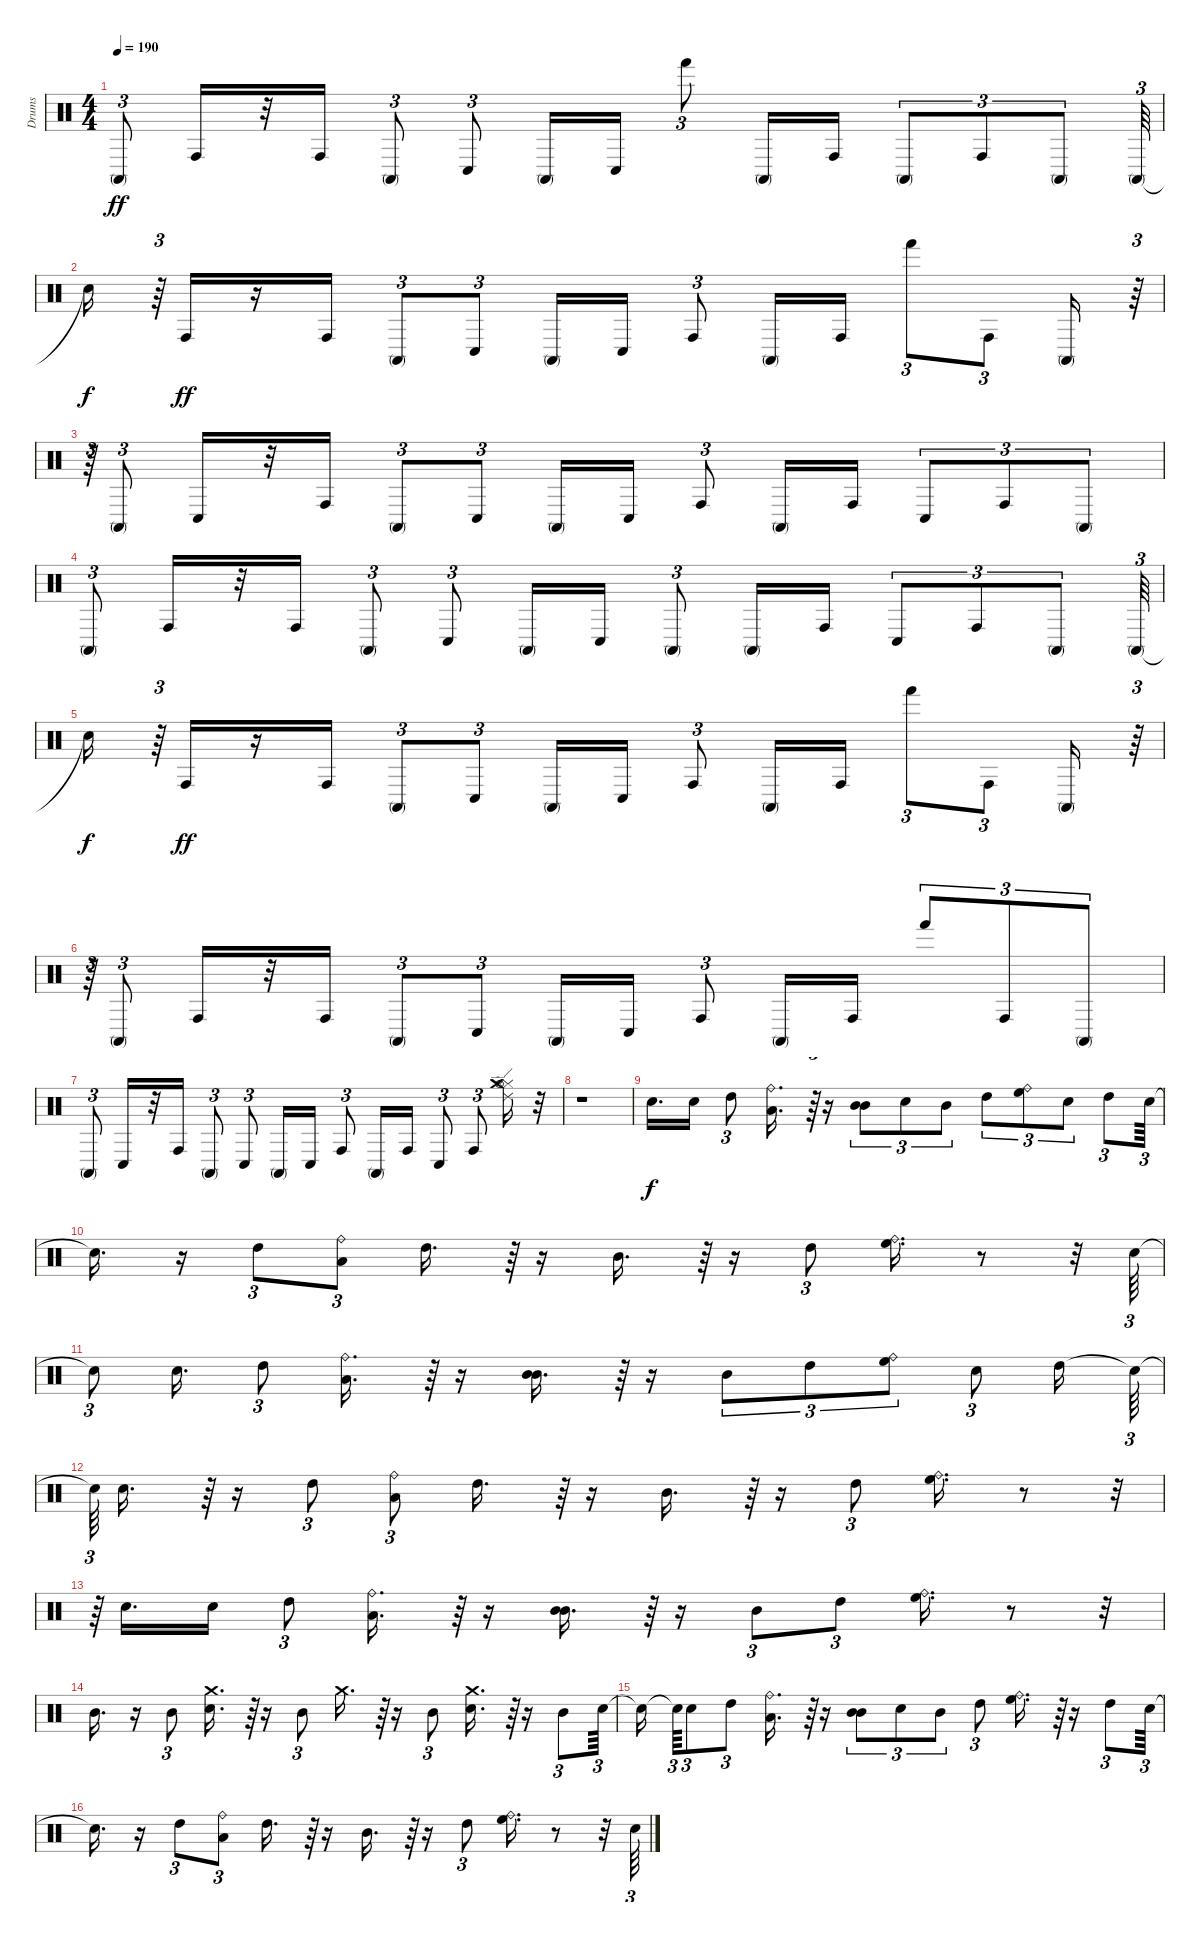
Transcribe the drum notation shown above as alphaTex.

\track ("Drums" "Drums") {instrument percussion}
\staff {score}
\articulation defaults
\ts (4 4)
\tempo 190
\clef neutral
\ks c "Conga high (mute)".8{tu (3 2) dy ff} "Conga high (hit)".16
r.32 "Conga high (hit)".16 "Conga high (mute)".8{tu (3 2)} "Conga low (hit)".8{tu (3 2)} "Conga high (mute)".16 "Conga low (hit)".16 "Hand (hit)".8{tu (3 2)} "Conga high (mute)".16 "Conga high (hit)".16 "Conga high (mute)".8{tu (3 2)} "Conga high (hit)".8{tu (3 2)} "Conga high (mute)".8{tu (3 2)} "Conga high (mute)".64{tu (3 2)} |
"Snare (hit)"{t}.16{dy f} r.64{tu (3 2)} "Conga high (hit)".16{dy ff} r.16 "Conga high (hit)".16 "Conga high (mute)".8{tu (3 2)} "Conga low (hit)".8{tu (3 2)} "Conga high (mute)".16 "Conga low (hit)".16 "Conga high (hit)".8{tu (3 2)} "Conga high (mute)".16 "Conga high (hit)".16 "Hand (hit)".8{tu (3 2)} "Conga high (hit)".8{tu (3 2)} "Conga high (mute)".16 r.64{tu (3 2)} |
r.64{tu (3 2)} "Conga high (mute)".8{tu (3 2)} "Conga low (hit)".16 r.32 "Conga high (hit)".16 "Conga high (mute)".8{tu (3 2)} "Conga low (hit)".8{tu (3 2)} "Conga high (mute)".16 "Conga low (hit)".16 "Conga high (hit)".8{tu (3 2)} "Conga high (mute)".16 "Conga high (hit)".16 "Conga low (hit)".8{tu (3 2)} "Conga high (hit)".8{tu (3 2)} "Conga high (mute)".8{tu (3 2)} |
"Conga high (mute)".8{tu (3 2)} "Conga high (hit)".16 r.32 "Conga high (hit)".16 "Conga high (mute)".8{tu (3 2)} "Conga low (hit)".8{tu (3 2)} "Conga high (mute)".16 "Conga low (hit)".16 "Conga high (mute)".8{tu (3 2)} "Conga high (mute)".16 "Conga high (hit)".16 "Conga low (hit)".8{tu (3 2)} "Conga high (hit)".8{tu (3 2)} "Conga high (mute)".8{tu (3 2)} "Conga high (mute)".64{tu (3 2)} |
"Snare (hit)"{t}.16{dy f} r.64{tu (3 2)} "Conga high (hit)".16{dy ff} r.16 "Conga high (hit)".16 "Conga high (mute)".8{tu (3 2)} "Conga low (hit)".8{tu (3 2)} "Conga high (mute)".16 "Conga low (hit)".16 "Conga high (hit)".8{tu (3 2)} "Conga high (mute)".16 "Conga high (hit)".16 "Hand (hit)".8{tu (3 2)} "Conga high (hit)".8{tu (3 2)} "Conga high (mute)".16 r.64{tu (3 2)} |
r.64{tu (3 2)} "Conga high (mute)".8{tu (3 2)} "Conga high (hit)".16 r.32 "Conga high (hit)".16 "Conga high (mute)".8{tu (3 2)} "Conga low (hit)".8{tu (3 2)} "Conga high (mute)".16 "Conga low (hit)".16 "Conga high (hit)".8{tu (3 2)} "Conga high (mute)".16 "Conga high (hit)".16 "Hand (hit)".8{tu (3 2)} "Conga high (hit)".8{tu (3 2)} "Conga high (mute)".8{tu (3 2)} |
"Conga high (mute)".8{tu (3 2)} "Conga low (hit)".16 r.32 "Conga high (hit)".16 "Conga high (mute)".8{tu (3 2)} "Conga low (hit)".8{tu (3 2)} "Conga high (mute)".16 "Conga low (hit)".16 "Conga high (hit)".8{tu (3 2)} "Conga high (mute)".16 "Conga high (hit)".16 "Conga low (hit)".8{tu (3 2)} "Conga high (hit)".8{tu (3 2)} ("Hi-Hat (closed)" "Hi-Hat (open)" "Crash medium (hit)" "Ride (edge) 2").16 r.32 |
r.1 |
"Electric Snare (hit)".16{d dy f} "Electric Snare (hit)".16 "High Tom (hit)".8{tu (3 2)} ("Low Floor Tom (hit)" "Ride (bell)").16{d} r.64{tu (3 2)} r.16 ("Mid Tom (hit)" "Mid Tom (hit)").8{tu (3 2)} "Electric Snare (hit)".8{tu (3 2)} "Mid Tom (hit)".8{tu (3 2)} "High Tom (hit)".8{tu (3 2)} ("High Floor Tom (hit)" "Ride (bell)").8{tu (3 2)} "Electric Snare (hit)".8{tu (3 2)} "High Tom (hit)".8{tu (3 2)} "Electric Snare (hit)".64{tu (3 2)} |
"Snare (hit)"{t}.16{d} r.16 "High Tom (hit)".8{tu (3 2)} ("Low Floor Tom (hit)" "Ride (bell)").8{tu (3 2)} "High Tom (hit)".16{d} r.64{tu (3 2)} r.16 "Mid Tom (hit)".16{d} r.64{tu (3 2)} r.16 "High Tom (hit)".8{tu (3 2)} ("High Floor Tom (hit)" "Ride (bell)").16{d} r.8 r.32 "Electric Snare (hit)".64{tu (3 2)} |
"Snare (hit)"{t}.8{tu (3 2)} "Electric Snare (hit)".16{d} "High Tom (hit)".8{tu (3 2)} ("Low Floor Tom (hit)" "Ride (bell)").16{d} r.64{tu (3 2)} r.16 ("Mid Tom (hit)" "Mid Tom (hit)").16{d} r.64{tu (3 2)} r.16 "Mid Tom (hit)".8{tu (3 2)} "High Tom (hit)".8{tu (3 2)} ("High Floor Tom (hit)" "Ride (bell)").8{tu (3 2)} "Electric Snare (hit)".8{tu (3 2)} "High Tom (hit)".16 "Snare (hit)"{t}.64{tu (3 2)} |
"Snare (hit)"{t}.64{tu (3 2)} "Electric Snare (hit)".16{d} r.64{tu (3 2)} r.16 "High Tom (hit)".8{tu (3 2)} ("Low Floor Tom (hit)" "Ride (bell)").8{tu (3 2)} "High Tom (hit)".16{d} r.64{tu (3 2)} r.16 "Mid Tom (hit)".16{d} r.64{tu (3 2)} r.16 "High Tom (hit)".8{tu (3 2)} ("High Floor Tom (hit)" "Ride (bell)").16{d} r.8 r.32{tu (3 2)} |
r.64{tu (3 2)} "Electric Snare (hit)".16{d} "Electric Snare (hit)".16 "High Tom (hit)".8{tu (3 2)} ("Low Floor Tom (hit)" "Ride (bell)").16{d} r.64{tu (3 2)} r.16 ("Mid Tom (hit)" "Mid Tom (hit)").16{d} r.64{tu (3 2)} r.16 "Mid Tom (hit)".8{tu (3 2)} "High Tom (hit)".8{tu (3 2)} ("High Floor Tom (hit)" "Ride (bell)").16{d} r.8 r.32 |
"Mid Tom (hit)".16{d} r.16 "Mid Tom (hit)".8{tu (3 2)} ("Crash medium (hit)" "Electric Snare (hit)").16{d} r.64{tu (3 2)} r.16 "Mid Tom (hit)".8{tu (3 2)} "Crash medium (hit)".16{d} r.64{tu (3 2)} r.16 "Mid Tom (hit)".8{tu (3 2)} ("Crash medium (hit)" "Electric Snare (hit)").16{d} r.64{tu (3 2)} r.16 "Mid Tom (hit)".8{tu (3 2)} "Electric Snare (hit)".64{tu (3 2)} |
"Snare (hit)"{t}.16 "Snare (hit)"{t}.64{tu (3 2)} "Electric Snare (hit)".8{tu (3 2)} "High Tom (hit)".8{tu (3 2)} ("Low Floor Tom (hit)" "Ride (bell)").16{d} r.64{tu (3 2)} r.16 ("Mid Tom (hit)" "Mid Tom (hit)").8{tu (3 2)} "Electric Snare (hit)".8{tu (3 2)} "Mid Tom (hit)".8{tu (3 2)} "High Tom (hit)".8{tu (3 2)} ("High Floor Tom (hit)" "Ride (bell)").16{d} r.64{tu (3 2)} r.16 "High Tom (hit)".8{tu (3 2)} "Electric Snare (hit)".64{tu (3 2)} |
"Snare (hit)"{t}.16{d} r.16 "High Tom (hit)".8{tu (3 2)} ("Low Floor Tom (hit)" "Ride (bell)").8{tu (3 2)} "High Tom (hit)".16{d} r.64{tu (3 2)} r.16 "Mid Tom (hit)".16{d} r.64{tu (3 2)} r.16 "High Tom (hit)".8{tu (3 2)} ("High Floor Tom (hit)" "Ride (bell)").16{d} r.8 r.32 "Electric Snare (hit)".64{tu (3 2)}
